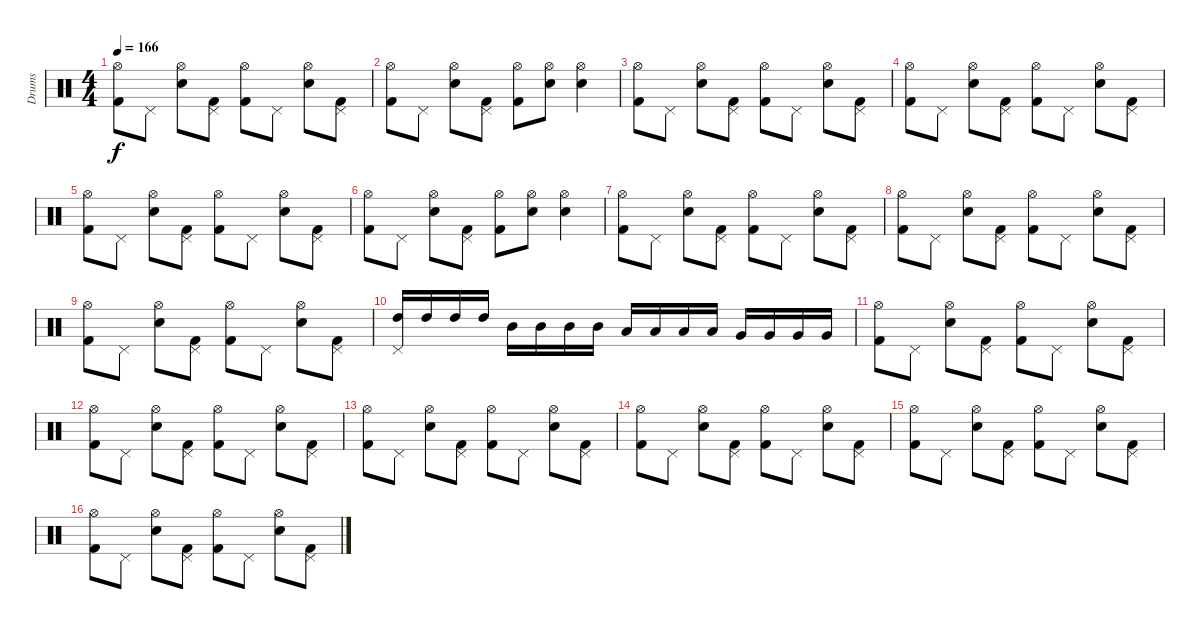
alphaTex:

\track ("Drums" "Drums") {instrument percussion}
\staff {score}
\articulation defaults
\ts (4 4)
\tempo 166
\clef neutral
\ks c
("Kick (hit) 2" "Hi-Hat (open)").8{dy f} "Pedal Hi-Hat (hit)".8 ("Snare (hit) 2" "Hi-Hat (open)").8 ("Kick (hit) 2" "Pedal Hi-Hat (hit)").8 ("Kick (hit) 2" "Hi-Hat (open)").8 "Pedal Hi-Hat (hit)".8 ("Snare (hit) 2" "Hi-Hat (open)").8 ("Kick (hit) 2" "Pedal Hi-Hat (hit)").8 |
("Kick (hit) 2" "Hi-Hat (open)").8 "Pedal Hi-Hat (hit)".8 ("Snare (hit) 2" "Hi-Hat (open)").8 ("Kick (hit) 2" "Pedal Hi-Hat (hit)").8 ("Kick (hit) 2" "Hi-Hat (open)").8 ("Snare (hit) 2" "Hi-Hat (open)").8 ("Snare (hit) 2" "Hi-Hat (open)").4 |
("Kick (hit) 2" "Hi-Hat (open)").8 "Pedal Hi-Hat (hit)".8 ("Snare (hit) 2" "Hi-Hat (open)").8 ("Kick (hit) 2" "Pedal Hi-Hat (hit)").8 ("Kick (hit) 2" "Hi-Hat (open)").8 "Pedal Hi-Hat (hit)".8 ("Snare (hit) 2" "Hi-Hat (open)").8 ("Kick (hit) 2" "Pedal Hi-Hat (hit)").8 |
("Kick (hit) 2" "Hi-Hat (open)").8 "Pedal Hi-Hat (hit)".8 ("Snare (hit) 2" "Hi-Hat (open)").8 ("Kick (hit) 2" "Pedal Hi-Hat (hit)").8 ("Kick (hit) 2" "Hi-Hat (open)").8 "Pedal Hi-Hat (hit)".8 ("Snare (hit) 2" "Hi-Hat (open)").8 ("Kick (hit) 2" "Pedal Hi-Hat (hit)").8 |
("Kick (hit) 2" "Hi-Hat (open)").8 "Pedal Hi-Hat (hit)".8 ("Snare (hit) 2" "Hi-Hat (open)").8 ("Kick (hit) 2" "Pedal Hi-Hat (hit)").8 ("Kick (hit) 2" "Hi-Hat (open)").8 "Pedal Hi-Hat (hit)".8 ("Snare (hit) 2" "Hi-Hat (open)").8 ("Kick (hit) 2" "Pedal Hi-Hat (hit)").8 |
("Kick (hit) 2" "Hi-Hat (open)").8 "Pedal Hi-Hat (hit)".8 ("Snare (hit) 2" "Hi-Hat (open)").8 ("Kick (hit) 2" "Pedal Hi-Hat (hit)").8 ("Kick (hit) 2" "Hi-Hat (open)").8 ("Snare (hit) 2" "Hi-Hat (open)").8 ("Snare (hit) 2" "Hi-Hat (open)").4 |
("Kick (hit) 2" "Hi-Hat (open)").8 "Pedal Hi-Hat (hit)".8 ("Snare (hit) 2" "Hi-Hat (open)").8 ("Kick (hit) 2" "Pedal Hi-Hat (hit)").8 ("Kick (hit) 2" "Hi-Hat (open)").8 "Pedal Hi-Hat (hit)".8 ("Snare (hit) 2" "Hi-Hat (open)").8 ("Kick (hit) 2" "Pedal Hi-Hat (hit)").8 |
("Kick (hit) 2" "Hi-Hat (open)").8 "Pedal Hi-Hat (hit)".8 ("Snare (hit) 2" "Hi-Hat (open)").8 ("Kick (hit) 2" "Pedal Hi-Hat (hit)").8 ("Kick (hit) 2" "Hi-Hat (open)").8 "Pedal Hi-Hat (hit)".8 ("Snare (hit) 2" "Hi-Hat (open)").8 ("Kick (hit) 2" "Pedal Hi-Hat (hit)").8 |
("Kick (hit) 2" "Hi-Hat (open)").8 "Pedal Hi-Hat (hit)".8 ("Snare (hit) 2" "Hi-Hat (open)").8 ("Kick (hit) 2" "Pedal Hi-Hat (hit)").8 ("Kick (hit) 2" "Hi-Hat (open)").8 "Pedal Hi-Hat (hit)".8 ("Snare (hit) 2" "Hi-Hat (open)").8 ("Kick (hit) 2" "Pedal Hi-Hat (hit)").8 |
("High Tom (hit)" "Pedal Hi-Hat (hit)").16 "High Tom (hit)".16 "High Tom (hit)".16 "High Tom (hit)".16 "Mid Tom (hit)".16 "Mid Tom (hit)".16 "Mid Tom (hit)".16 "Mid Tom (hit)".16 "Low Tom (hit)".16 "Low Tom (hit)".16 "Low Tom (hit)".16 "Low Tom (hit)".16 "Very Low Tom (hit)".16 "Very Low Tom (hit)".16 "Very Low Tom (hit)".16 "Very Low Tom (hit)".16 |
("Kick (hit) 2" "Hi-Hat (open)").8 "Pedal Hi-Hat (hit)".8 ("Snare (hit) 2" "Hi-Hat (open)").8 ("Kick (hit) 2" "Pedal Hi-Hat (hit)").8 ("Kick (hit) 2" "Hi-Hat (open)").8 "Pedal Hi-Hat (hit)".8 ("Snare (hit) 2" "Hi-Hat (open)").8 ("Kick (hit) 2" "Pedal Hi-Hat (hit)").8 |
("Kick (hit) 2" "Hi-Hat (open)").8 "Pedal Hi-Hat (hit)".8 ("Snare (hit) 2" "Hi-Hat (open)").8 ("Kick (hit) 2" "Pedal Hi-Hat (hit)").8 ("Kick (hit) 2" "Hi-Hat (open)").8 "Pedal Hi-Hat (hit)".8 ("Snare (hit) 2" "Hi-Hat (open)").8 ("Kick (hit) 2" "Pedal Hi-Hat (hit)").8 |
("Kick (hit) 2" "Hi-Hat (open)").8 "Pedal Hi-Hat (hit)".8 ("Snare (hit) 2" "Hi-Hat (open)").8 ("Kick (hit) 2" "Pedal Hi-Hat (hit)").8 ("Kick (hit) 2" "Hi-Hat (open)").8 "Pedal Hi-Hat (hit)".8 ("Snare (hit) 2" "Hi-Hat (open)").8 ("Kick (hit) 2" "Pedal Hi-Hat (hit)").8 |
("Kick (hit) 2" "Hi-Hat (open)").8 "Pedal Hi-Hat (hit)".8 ("Snare (hit) 2" "Hi-Hat (open)").8 ("Kick (hit) 2" "Pedal Hi-Hat (hit)").8 ("Kick (hit) 2" "Hi-Hat (open)").8 "Pedal Hi-Hat (hit)".8 ("Snare (hit) 2" "Hi-Hat (open)").8 ("Kick (hit) 2" "Pedal Hi-Hat (hit)").8 |
("Kick (hit) 2" "Hi-Hat (open)").8 "Pedal Hi-Hat (hit)".8 ("Snare (hit) 2" "Hi-Hat (open)").8 ("Kick (hit) 2" "Pedal Hi-Hat (hit)").8 ("Kick (hit) 2" "Hi-Hat (open)").8 "Pedal Hi-Hat (hit)".8 ("Snare (hit) 2" "Hi-Hat (open)").8 ("Kick (hit) 2" "Pedal Hi-Hat (hit)").8 |
("Kick (hit) 2" "Hi-Hat (open)").8 "Pedal Hi-Hat (hit)".8 ("Snare (hit) 2" "Hi-Hat (open)").8 ("Kick (hit) 2" "Pedal Hi-Hat (hit)").8 ("Kick (hit) 2" "Hi-Hat (open)").8 "Pedal Hi-Hat (hit)".8 ("Snare (hit) 2" "Hi-Hat (open)").8 ("Kick (hit) 2" "Pedal Hi-Hat (hit)").8
